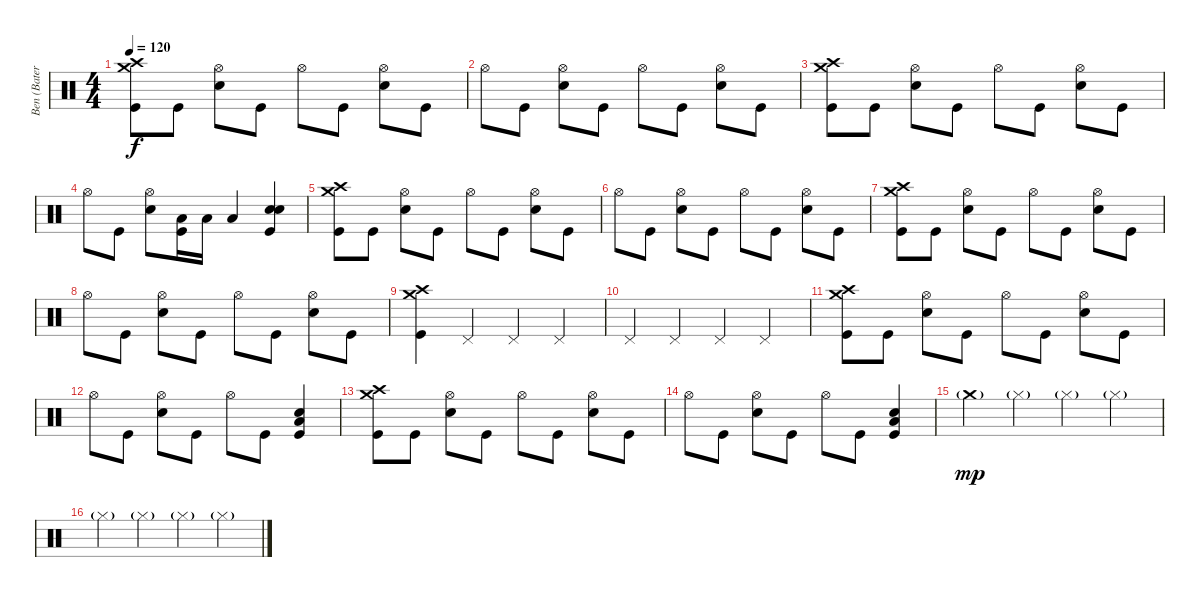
\track ("Ben (Bateria)" "Ben (Bater") {instrument percussion}
\staff {score}
\articulation defaults
\ts (4 4)
\tempo 120
\clef neutral
\ks c
("Kick (hit)" "Crash high (hit)" "Crash medium (hit)").8{dy f} "Kick (hit)".8 ("Snare (hit) 2" "Hi-Hat (open)").8 "Kick (hit)".8 "Hi-Hat (open)".8 "Kick (hit)".8 ("Snare (hit) 2" "Hi-Hat (open)").8 "Kick (hit)".8 |
"Hi-Hat (open)".8 "Kick (hit)".8 ("Snare (hit) 2" "Hi-Hat (open)").8 "Kick (hit)".8 "Hi-Hat (open)".8 "Kick (hit)".8 ("Snare (hit) 2" "Hi-Hat (open)").8 "Kick (hit)".8 |
("Kick (hit)" "Crash high (hit)" "Crash medium (hit)").8 "Kick (hit)".8 ("Snare (hit) 2" "Hi-Hat (open)").8 "Kick (hit)".8 "Hi-Hat (open)".8 "Kick (hit)".8 ("Snare (hit) 2" "Hi-Hat (open)").8 "Kick (hit)".8 |
"Hi-Hat (open)".8 "Kick (hit)".8 ("Snare (hit) 2" "Hi-Hat (open)").8 ("Kick (hit)" "Low Tom (hit)").16 "Low Tom (hit)".16 "Low Tom (hit)".4 ("Kick (hit)" "Snare (hit) 2" "Snare (hit) 2").4 |
("Kick (hit)" "Crash high (hit)" "Crash medium (hit)").8 "Kick (hit)".8 ("Snare (hit) 2" "Hi-Hat (open)").8 "Kick (hit)".8 "Hi-Hat (open)".8 "Kick (hit)".8 ("Snare (hit) 2" "Hi-Hat (open)").8 "Kick (hit)".8 |
"Hi-Hat (open)".8 "Kick (hit)".8 ("Snare (hit) 2" "Hi-Hat (open)").8 "Kick (hit)".8 "Hi-Hat (open)".8 "Kick (hit)".8 ("Snare (hit) 2" "Hi-Hat (open)").8 "Kick (hit)".8 |
("Kick (hit)" "Crash high (hit)" "Crash medium (hit)").8 "Kick (hit)".8 ("Snare (hit) 2" "Hi-Hat (open)").8 "Kick (hit)".8 "Hi-Hat (open)".8 "Kick (hit)".8 ("Snare (hit) 2" "Hi-Hat (open)").8 "Kick (hit)".8 |
"Hi-Hat (open)".8 "Kick (hit)".8 ("Snare (hit) 2" "Hi-Hat (open)").8 "Kick (hit)".8 "Hi-Hat (open)".8 "Kick (hit)".8 ("Snare (hit) 2" "Hi-Hat (open)").8 "Kick (hit)".8 |
("Kick (hit)" "Crash high (hit)" "Crash medium (hit)").4 "Pedal Hi-Hat (hit)".4 "Pedal Hi-Hat (hit)".4 "Pedal Hi-Hat (hit)".4 |
"Pedal Hi-Hat (hit)".4 "Pedal Hi-Hat (hit)".4 "Pedal Hi-Hat (hit)".4 "Pedal Hi-Hat (hit)".4 |
("Kick (hit)" "Crash high (hit)" "Crash medium (hit)").8 "Kick (hit)".8 ("Snare (hit) 2" "Hi-Hat (open)").8 "Kick (hit)".8 "Hi-Hat (open)".8 "Kick (hit)".8 ("Snare (hit) 2" "Hi-Hat (open)").8 "Kick (hit)".8 |
"Hi-Hat (open)".8 "Kick (hit)".8 ("Snare (hit) 2" "Hi-Hat (open)").8 "Kick (hit)".8 "Hi-Hat (open)".8 "Kick (hit)".8 ("Kick (hit)" "Snare (hit) 2" "Low Floor Tom (hit)").4 |
("Kick (hit)" "Crash high (hit)" "Crash medium (hit)").8 "Kick (hit)".8 ("Snare (hit) 2" "Hi-Hat (open)").8 "Kick (hit)".8 "Hi-Hat (open)".8 "Kick (hit)".8 ("Snare (hit) 2" "Hi-Hat (open)").8 "Kick (hit)".8 |
"Hi-Hat (open)".8 "Kick (hit)".8 ("Snare (hit) 2" "Hi-Hat (open)").8 "Kick (hit)".8 "Hi-Hat (open)".8 "Kick (hit)".8 ("Kick (hit)" "Snare (hit) 2" "Low Floor Tom (hit)").4 |
"Crash medium (hit)"{g}.4{dy mp} "Hi-Hat (closed)"{g}.4 "Hi-Hat (closed)"{g}.4 "Hi-Hat (closed)"{g}.4 |
"Hi-Hat (closed)"{g}.4 "Hi-Hat (closed)"{g}.4 "Hi-Hat (closed)"{g}.4 "Hi-Hat (closed)"{g}.4
